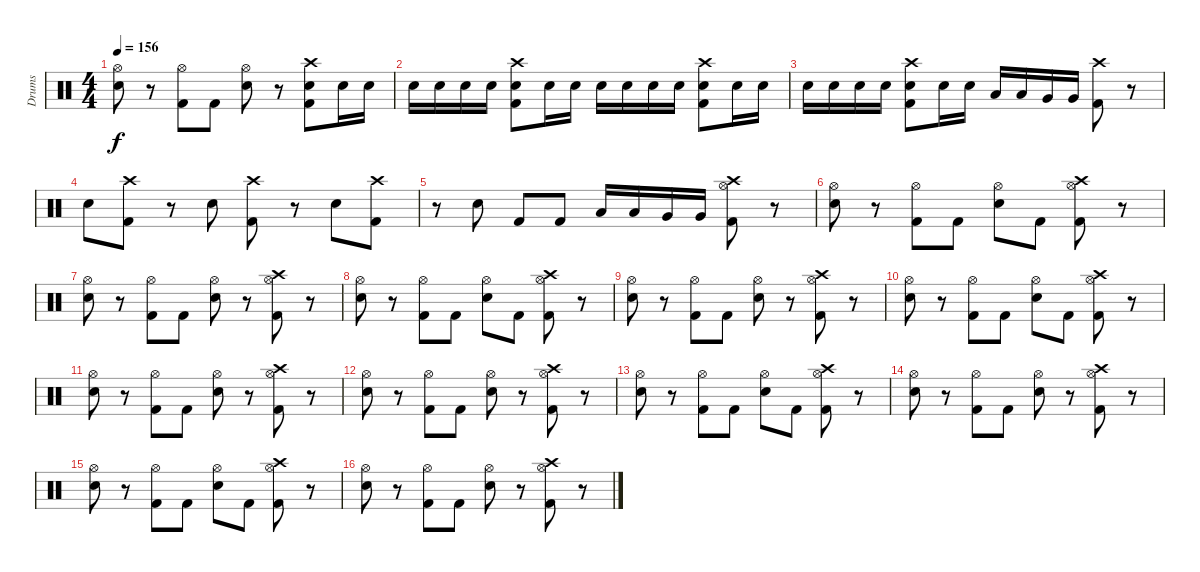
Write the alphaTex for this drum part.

\track ("Drums" "Drums") {instrument percussion}
\staff {score}
\articulation defaults
\ts (4 4)
\tempo 156
\clef neutral
\ks c
("Hi-Hat (open)" "Electric Snare (hit)").8{dy f} r.8 ("Hi-Hat (open)" "Kick (hit) 2").8 "Kick (hit) 2".8 ("Hi-Hat (open)" "Electric Snare (hit)").8 r.8 ("Crash high (hit)" "Electric Snare (hit)" "Kick (hit) 2").8 "Electric Snare (hit)".16 "Electric Snare (hit)".16 |
"Electric Snare (hit)".16 "Electric Snare (hit)".16 "Electric Snare (hit)".16 "Electric Snare (hit)".16 ("Crash high (hit)" "Electric Snare (hit)" "Kick (hit) 2").8 "Electric Snare (hit)".16 "Electric Snare (hit)".16 "Electric Snare (hit)".16 "Electric Snare (hit)".16 "Electric Snare (hit)".16 "Electric Snare (hit)".16 ("Crash high (hit)" "Electric Snare (hit)" "Kick (hit) 2").8 "Electric Snare (hit)".16 "Electric Snare (hit)".16 |
"Electric Snare (hit)".16 "Electric Snare (hit)".16 "Electric Snare (hit)".16 "Electric Snare (hit)".16 ("Crash high (hit)" "Electric Snare (hit)" "Kick (hit) 2").8 "Electric Snare (hit)".16 "Electric Snare (hit)".16 "Low Tom (hit)".16 "Low Tom (hit)".16 "Very Low Tom (hit)".16 "Very Low Tom (hit)".16 ("Crash high (hit)" "Kick (hit) 2").8 r.8 |
"Electric Snare (hit)".8 ("Crash high (hit)" "Kick (hit) 2").8 r.8 "Electric Snare (hit)".8 ("Crash high (hit)" "Kick (hit) 2").8 r.8 "Electric Snare (hit)".8 ("Crash high (hit)" "Kick (hit) 2").8 |
r.8 "Electric Snare (hit)".8 "Kick (hit) 2".8 "Kick (hit) 2".8 "Low Tom (hit)".16 "Low Tom (hit)".16 "Very Low Tom (hit)".16 "Very Low Tom (hit)".16 ("Crash high (hit)" "Hi-Hat (open)" "Kick (hit) 2").8 r.8 |
("Hi-Hat (open)" "Electric Snare (hit)").8 r.8 ("Hi-Hat (open)" "Kick (hit) 2").8 "Kick (hit) 2".8 ("Hi-Hat (open)" "Electric Snare (hit)").8 "Kick (hit) 2".8 ("Crash high (hit)" "Hi-Hat (open)" "Kick (hit) 2").8 r.8 |
("Hi-Hat (open)" "Electric Snare (hit)").8 r.8 ("Hi-Hat (open)" "Kick (hit) 2").8 "Kick (hit) 2".8 ("Hi-Hat (open)" "Electric Snare (hit)").8 r.8 ("Crash high (hit)" "Hi-Hat (open)" "Kick (hit) 2").8 r.8 |
("Hi-Hat (open)" "Electric Snare (hit)").8 r.8 ("Hi-Hat (open)" "Kick (hit) 2").8 "Kick (hit) 2".8 ("Hi-Hat (open)" "Electric Snare (hit)").8 "Kick (hit) 2".8 ("Crash high (hit)" "Hi-Hat (open)" "Kick (hit) 2").8 r.8 |
("Hi-Hat (open)" "Electric Snare (hit)").8 r.8 ("Hi-Hat (open)" "Kick (hit) 2").8 "Kick (hit) 2".8 ("Hi-Hat (open)" "Electric Snare (hit)").8 r.8 ("Crash high (hit)" "Hi-Hat (open)" "Kick (hit) 2").8 r.8 |
("Hi-Hat (open)" "Electric Snare (hit)").8 r.8 ("Hi-Hat (open)" "Kick (hit) 2").8 "Kick (hit) 2".8 ("Hi-Hat (open)" "Electric Snare (hit)").8 "Kick (hit) 2".8 ("Crash high (hit)" "Hi-Hat (open)" "Kick (hit) 2").8 r.8 |
("Hi-Hat (open)" "Electric Snare (hit)").8 r.8 ("Hi-Hat (open)" "Kick (hit) 2").8 "Kick (hit) 2".8 ("Hi-Hat (open)" "Electric Snare (hit)").8 r.8 ("Crash high (hit)" "Hi-Hat (open)" "Kick (hit) 2").8 r.8 |
("Hi-Hat (open)" "Electric Snare (hit)").8 r.8 ("Hi-Hat (open)" "Kick (hit) 2").8 "Kick (hit) 2".8 ("Hi-Hat (open)" "Electric Snare (hit)").8 r.8 ("Crash high (hit)" "Hi-Hat (open)" "Kick (hit) 2").8 r.8 |
("Hi-Hat (open)" "Electric Snare (hit)").8 r.8 ("Hi-Hat (open)" "Kick (hit) 2").8 "Kick (hit) 2".8 ("Hi-Hat (open)" "Electric Snare (hit)").8 "Kick (hit) 2".8 ("Crash high (hit)" "Hi-Hat (open)" "Kick (hit) 2").8 r.8 |
("Hi-Hat (open)" "Electric Snare (hit)").8 r.8 ("Hi-Hat (open)" "Kick (hit) 2").8 "Kick (hit) 2".8 ("Hi-Hat (open)" "Electric Snare (hit)").8 r.8 ("Crash high (hit)" "Hi-Hat (open)" "Kick (hit) 2").8 r.8 |
("Hi-Hat (open)" "Electric Snare (hit)").8 r.8 ("Hi-Hat (open)" "Kick (hit) 2").8 "Kick (hit) 2".8 ("Hi-Hat (open)" "Electric Snare (hit)").8 "Kick (hit) 2".8 ("Crash high (hit)" "Hi-Hat (open)" "Kick (hit) 2").8 r.8 |
("Hi-Hat (open)" "Electric Snare (hit)").8 r.8 ("Hi-Hat (open)" "Kick (hit) 2").8 "Kick (hit) 2".8 ("Hi-Hat (open)" "Electric Snare (hit)").8 r.8 ("Crash high (hit)" "Hi-Hat (open)" "Kick (hit) 2").8 r.8
